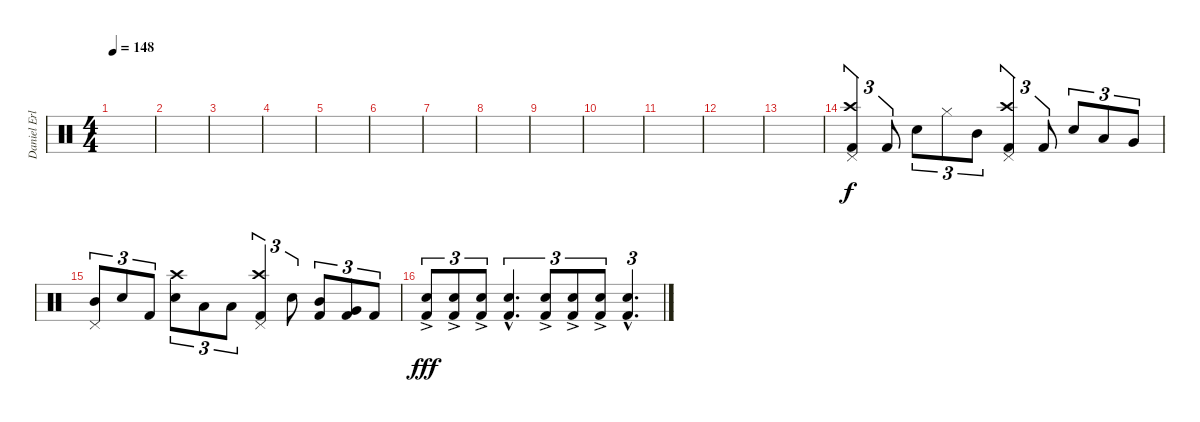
\track ("Daniel Erlandsson (Drums)" "Daniel Erl") {instrument percussion}
\staff {score}
\articulation defaults
\ts (4 4)
\tempo 148
\clef neutral
\ks c
|
|
|
|
|
|
|
|
|
|
|
|
|
("Pedal Hi-Hat (hit)" "Crash high (hit)" "Kick (hit) 2").4{tu (3 2)} "Kick (hit) 2".8{tu (3 2)} "Snare (hit) 2".8{tu (3 2)} "Hi-Hat (closed)".8{tu (3 2)} "Mid Tom (hit)".8{tu (3 2)} ("Pedal Hi-Hat (hit)" "Crash high (hit)" "Kick (hit) 2").4{tu (3 2)} "Kick (hit) 2".8{tu (3 2)} "Snare (hit) 2".8{tu (3 2)} "Low Tom (hit)".8{tu (3 2)} "Very Low Tom (hit)".8{tu (3 2)} |
("Pedal Hi-Hat (hit)" "Mid Tom (hit)").8{tu (3 2)} "Snare (hit) 2".8{tu (3 2)} "Kick (hit) 2".8{tu (3 2)} ("Crash high (hit)" "Snare (hit) 2").8{tu (3 2)} "Low Tom (hit)".8{tu (3 2)} "Low Floor Tom (hit)".8{tu (3 2)} ("Pedal Hi-Hat (hit)" "Crash high (hit)" "Kick (hit) 2").4{tu (3 2)} "Snare (hit) 2".8{tu (3 2)} ("Mid Tom (hit)" "Kick (hit) 2").8{tu (3 2)} ("Very Low Tom (hit)" "Kick (hit) 2").8{tu (3 2)} "Kick (hit) 2".8{tu (3 2)} |
("Kick (hit) 2"{ac} "Snare (hit) 2").8{tu (3 2) dy fff} ("Kick (hit) 2"{ac} "Snare (hit) 2").8{tu (3 2)} ("Kick (hit) 2"{ac} "Snare (hit) 2").8{tu (3 2)} ("Kick (hit) 2"{hac} "Snare (hit) 2"{hac}).4{d tu (3 2)} ("Kick (hit) 2"{ac} "Snare (hit) 2").8{tu (3 2)} ("Kick (hit) 2"{ac} "Snare (hit) 2").8{tu (3 2)} ("Kick (hit) 2"{ac} "Snare (hit) 2").8{tu (3 2)} ("Kick (hit) 2"{hac} "Snare (hit) 2"{hac}).4{d tu (3 2)}
